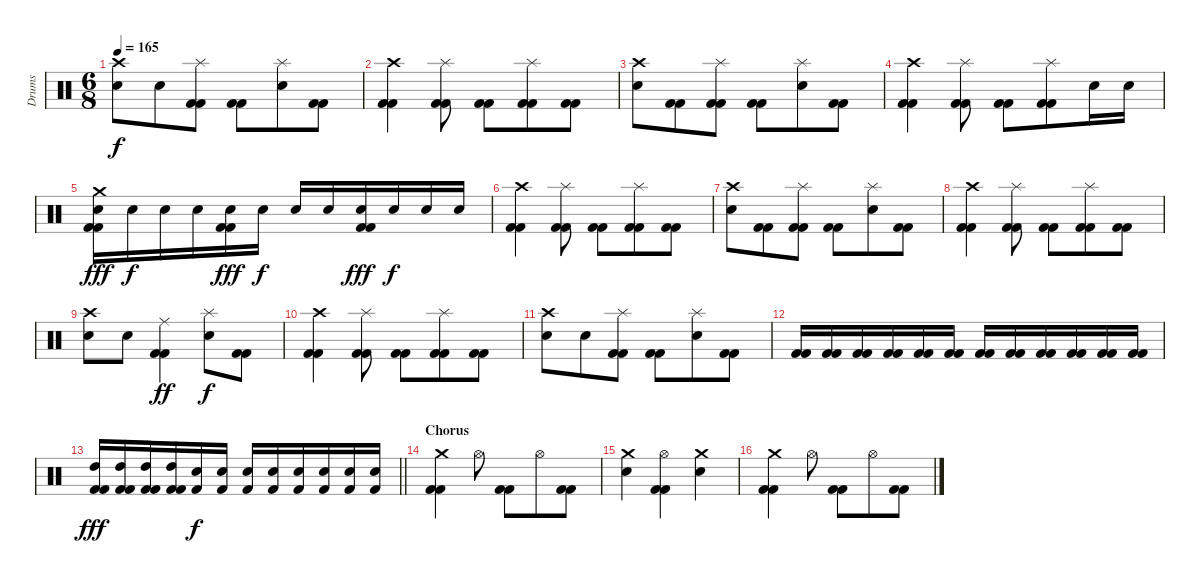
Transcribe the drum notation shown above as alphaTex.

\track ("Drums" "Drums") {instrument percussion}
\staff {score}
\articulation defaults
\ts (6 8)
\tempo 165
\clef neutral
\ks c
("Crash high (hit)" "Electric Snare (hit)").8{dy f} "Electric Snare (hit)".8 ("Splash (hit)" "Kick (hit) 2" "Kick (hit) 2").8 ("Kick (hit) 2" "Kick (hit) 2").8 ("Splash (hit)" "Electric Snare (hit)").8 ("Kick (hit) 2" "Kick (hit) 2").8 |
("Crash high (hit)" "Kick (hit) 2" "Kick (hit) 2").4 ("Splash (hit)" "Kick (hit) 2" "Kick (hit) 2").8 ("Kick (hit) 2" "Kick (hit) 2").8 ("Splash (hit)" "Kick (hit) 2" "Kick (hit) 2").8 ("Kick (hit) 2" "Kick (hit) 2").8 |
("Crash high (hit)" "Electric Snare (hit)").8 ("Kick (hit) 2" "Kick (hit) 2").8 ("Splash (hit)" "Kick (hit) 2" "Kick (hit) 2").8 ("Kick (hit) 2" "Kick (hit) 2").8 ("Splash (hit)" "Electric Snare (hit)").8 ("Kick (hit) 2" "Kick (hit) 2").8 |
("Crash high (hit)" "Kick (hit) 2" "Kick (hit) 2").4 ("Splash (hit)" "Kick (hit) 2" "Kick (hit) 2").8 ("Kick (hit) 2" "Kick (hit) 2").8 ("Splash (hit)" "Kick (hit) 2" "Kick (hit) 2").8 "Electric Snare (hit)".16 "Electric Snare (hit)".16 |
("Crash medium (hit)" "Electric Snare (hit)" "Kick (hit) 2" "Kick (hit) 2").16{dy fff} "Electric Snare (hit)".16{dy f} "Electric Snare (hit)".16 "Electric Snare (hit)".16 ("Electric Snare (hit)" "Kick (hit) 2" "Kick (hit) 2").16{dy fff} "Electric Snare (hit)".16{dy f} "Electric Snare (hit)".16 "Electric Snare (hit)".16 ("Electric Snare (hit)" "Kick (hit) 2" "Kick (hit) 2").16{dy fff} "Electric Snare (hit)".16{dy f} "Electric Snare (hit)".16 "Electric Snare (hit)".16 |
("Crash high (hit)" "Kick (hit) 2" "Kick (hit) 2").4 ("Splash (hit)" "Kick (hit) 2" "Kick (hit) 2").8 ("Kick (hit) 2" "Kick (hit) 2").8 ("Splash (hit)" "Kick (hit) 2" "Kick (hit) 2").8 ("Kick (hit) 2" "Kick (hit) 2").8 |
("Crash high (hit)" "Electric Snare (hit)").8 ("Kick (hit) 2" "Kick (hit) 2").8 ("Splash (hit)" "Kick (hit) 2" "Kick (hit) 2").8 ("Kick (hit) 2" "Kick (hit) 2").8 ("Splash (hit)" "Electric Snare (hit)").8 ("Kick (hit) 2" "Kick (hit) 2").8 |
("Crash high (hit)" "Kick (hit) 2" "Kick (hit) 2").4 ("Splash (hit)" "Kick (hit) 2" "Kick (hit) 2").8 ("Kick (hit) 2" "Kick (hit) 2").8 ("Splash (hit)" "Kick (hit) 2" "Kick (hit) 2").8 ("Kick (hit) 2" "Kick (hit) 2").8 |
("Crash high (hit)" "Electric Snare (hit)").8 "Electric Snare (hit)".8 ("Ride (middle)" "Kick (hit) 2" "Kick (hit) 2").4{dy ff} ("Splash (hit)" "Electric Snare (hit)").8{dy f} ("Kick (hit) 2" "Kick (hit) 2").8 |
("Crash high (hit)" "Kick (hit) 2" "Kick (hit) 2").4 ("Splash (hit)" "Kick (hit) 2" "Kick (hit) 2").8 ("Kick (hit) 2" "Kick (hit) 2").8 ("Splash (hit)" "Kick (hit) 2" "Kick (hit) 2").8 ("Kick (hit) 2" "Kick (hit) 2").8 |
("Crash high (hit)" "Electric Snare (hit)").8 "Electric Snare (hit)".8 ("Splash (hit)" "Kick (hit) 2" "Kick (hit) 2").8 ("Kick (hit) 2" "Kick (hit) 2").8 ("Splash (hit)" "Electric Snare (hit)").8 ("Kick (hit) 2" "Kick (hit) 2").8 |
("Kick (hit) 2" "Kick (hit) 2").16 ("Kick (hit) 2" "Kick (hit) 2").16 ("Kick (hit) 2" "Kick (hit) 2").16 ("Kick (hit) 2" "Kick (hit) 2").16 ("Kick (hit) 2" "Kick (hit) 2").16 ("Kick (hit) 2" "Kick (hit) 2").16 ("Kick (hit) 2" "Kick (hit) 2").16 ("Kick (hit) 2" "Kick (hit) 2").16 ("Kick (hit) 2" "Kick (hit) 2").16 ("Kick (hit) 2" "Kick (hit) 2").16 ("Kick (hit) 2" "Kick (hit) 2").16 ("Kick (hit) 2" "Kick (hit) 2").16 |
\barLineRight lightlight
("High Tom (hit)" "Kick (hit) 2" "Kick (hit) 2").16{dy fff} ("High Tom (hit)" "Kick (hit) 2" "Kick (hit) 2").16 ("High Tom (hit)" "Kick (hit) 2" "Kick (hit) 2").16 ("High Tom (hit)" "Kick (hit) 2" "Kick (hit) 2").16 ("Electric Snare (hit)" "Kick (hit) 2").16{dy f} ("Electric Snare (hit)" "Kick (hit) 2").16 ("Electric Snare (hit)" "Kick (hit) 2").16 ("Electric Snare (hit)" "Kick (hit) 2").16 ("Electric Snare (hit)" "Kick (hit) 2").16 ("Electric Snare (hit)" "Kick (hit) 2").16 ("Electric Snare (hit)" "Kick (hit) 2").16 ("Electric Snare (hit)" "Kick (hit) 2").16 |
\section ("" "Chorus")
("Crash medium (hit)" "Kick (hit) 2" "Kick (hit) 2").4 "Hi-Hat (open)".8 ("Kick (hit) 2" "Kick (hit) 2").8 "Hi-Hat (open)".8 ("Kick (hit) 2" "Kick (hit) 2").8 |
("Crash medium (hit)" "Electric Snare (hit)").4 ("Hi-Hat (open)" "Kick (hit) 2" "Kick (hit) 2").4 ("Crash medium (hit)" "Electric Snare (hit)").4 |
("Crash medium (hit)" "Kick (hit) 2" "Kick (hit) 2").4 "Hi-Hat (open)".8 ("Kick (hit) 2" "Kick (hit) 2").8 "Hi-Hat (open)".8 ("Kick (hit) 2" "Kick (hit) 2").8
